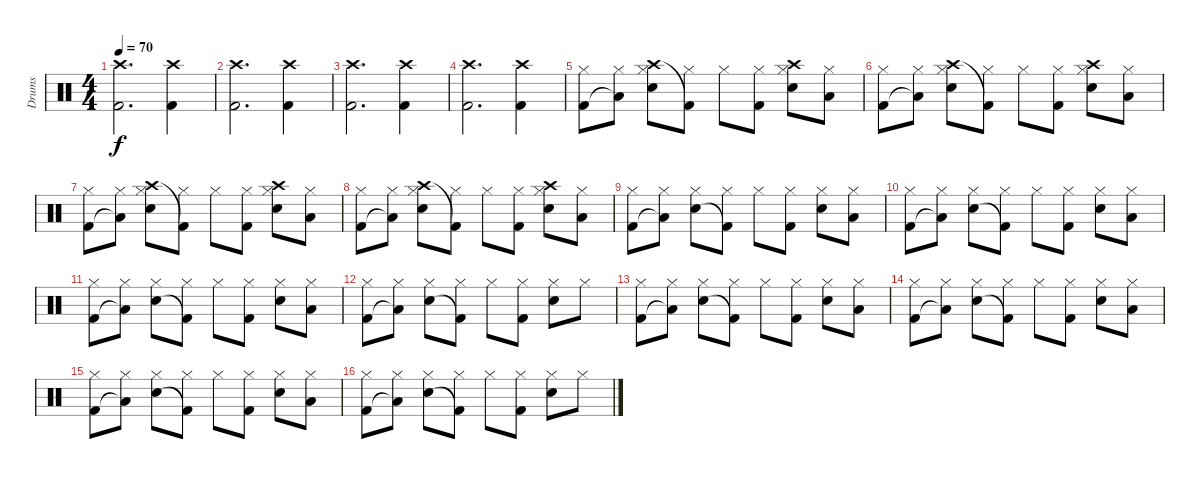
\track ("Drums" "Drums") {instrument percussion}
\staff {score}
\articulation defaults
\ts (4 4)
\tempo 70
\clef neutral
\ks c
("Crash high (hit)" "Kick (hit) 2").2{d dy f} ("Crash high (hit)" "Kick (hit) 2").4 |
("Crash high (hit)" "Kick (hit) 2").2{d} ("Crash high (hit)" "Kick (hit) 2").4 |
("Crash high (hit)" "Kick (hit) 2").2{d} ("Crash high (hit)" "Kick (hit) 2").4 |
("Crash high (hit)" "Kick (hit) 2").2{d} ("Crash high (hit)" "Kick (hit) 2").4 |
("Kick (hit) 2" "Hi-Hat (closed)").8 ("Low Floor Tom (hit)"{t} "Hi-Hat (closed)").8 ("Crash high (hit)" "Electric Snare (hit)" "Hi-Hat (closed)").8 ("Kick (hit) 2"{t} "Hi-Hat (closed)").8 "Hi-Hat (closed)".8 ("Kick (hit) 2" "Hi-Hat (closed)").8 ("Crash high (hit)" "Electric Snare (hit)" "Hi-Hat (closed)").8 ("Low Floor Tom (hit)" "Hi-Hat (closed)").8 |
("Kick (hit) 2" "Hi-Hat (closed)").8 ("Low Floor Tom (hit)"{t} "Hi-Hat (closed)").8 ("Crash high (hit)" "Electric Snare (hit)" "Hi-Hat (closed)").8 ("Kick (hit) 2"{t} "Hi-Hat (closed)").8 "Hi-Hat (closed)".8 ("Kick (hit) 2" "Hi-Hat (closed)").8 ("Crash high (hit)" "Electric Snare (hit)" "Hi-Hat (closed)").8 ("Low Floor Tom (hit)" "Hi-Hat (closed)").8 |
("Kick (hit) 2" "Hi-Hat (closed)").8 ("Low Floor Tom (hit)"{t} "Hi-Hat (closed)").8 ("Crash high (hit)" "Electric Snare (hit)" "Hi-Hat (closed)").8 ("Kick (hit) 2"{t} "Hi-Hat (closed)").8 "Hi-Hat (closed)".8 ("Kick (hit) 2" "Hi-Hat (closed)").8 ("Crash high (hit)" "Electric Snare (hit)" "Hi-Hat (closed)").8 ("Low Floor Tom (hit)" "Hi-Hat (closed)").8 |
("Kick (hit) 2" "Hi-Hat (closed)").8 ("Low Floor Tom (hit)"{t} "Hi-Hat (closed)").8 ("Crash high (hit)" "Electric Snare (hit)" "Hi-Hat (closed)").8 ("Kick (hit) 2"{t} "Hi-Hat (closed)").8 "Hi-Hat (closed)".8 ("Kick (hit) 2" "Hi-Hat (closed)").8 ("Crash high (hit)" "Electric Snare (hit)" "Hi-Hat (closed)").8 ("Low Floor Tom (hit)" "Hi-Hat (closed)").8 |
("Kick (hit) 2" "Hi-Hat (closed)").8 ("Low Floor Tom (hit)"{t} "Hi-Hat (closed)").8 ("Electric Snare (hit)" "Hi-Hat (closed)").8 ("Kick (hit) 2"{t} "Hi-Hat (closed)").8 "Hi-Hat (closed)".8 ("Kick (hit) 2" "Hi-Hat (closed)").8 ("Electric Snare (hit)" "Hi-Hat (closed)").8 ("Low Floor Tom (hit)" "Hi-Hat (closed)").8 |
("Kick (hit) 2" "Hi-Hat (closed)").8 ("Low Floor Tom (hit)"{t} "Hi-Hat (closed)").8 ("Electric Snare (hit)" "Hi-Hat (closed)").8 ("Kick (hit) 2"{t} "Hi-Hat (closed)").8 "Hi-Hat (closed)".8 ("Kick (hit) 2" "Hi-Hat (closed)").8 ("Electric Snare (hit)" "Hi-Hat (closed)").8 ("Low Floor Tom (hit)" "Hi-Hat (closed)").8 |
("Kick (hit) 2" "Hi-Hat (closed)").8 ("Low Floor Tom (hit)"{t} "Hi-Hat (closed)").8 ("Electric Snare (hit)" "Hi-Hat (closed)").8 ("Kick (hit) 2"{t} "Hi-Hat (closed)").8 "Hi-Hat (closed)".8 ("Kick (hit) 2" "Hi-Hat (closed)").8 ("Electric Snare (hit)" "Hi-Hat (closed)").8 ("Low Floor Tom (hit)" "Hi-Hat (closed)").8 |
("Kick (hit) 2" "Hi-Hat (closed)").8 ("Low Floor Tom (hit)"{t} "Hi-Hat (closed)").8 ("Electric Snare (hit)" "Hi-Hat (closed)").8 ("Kick (hit) 2"{t} "Hi-Hat (closed)").8 "Hi-Hat (closed)".8 ("Kick (hit) 2" "Hi-Hat (closed)").8 ("Electric Snare (hit)" "Hi-Hat (closed)").8 "Hi-Hat (closed)".8 |
("Kick (hit) 2" "Hi-Hat (closed)").8 ("Low Floor Tom (hit)"{t} "Hi-Hat (closed)").8 ("Electric Snare (hit)" "Hi-Hat (closed)").8 ("Kick (hit) 2"{t} "Hi-Hat (closed)").8 "Hi-Hat (closed)".8 ("Kick (hit) 2" "Hi-Hat (closed)").8 ("Electric Snare (hit)" "Hi-Hat (closed)").8 ("Low Floor Tom (hit)" "Hi-Hat (closed)").8 |
("Kick (hit) 2" "Hi-Hat (closed)").8 ("Low Floor Tom (hit)"{t} "Hi-Hat (closed)").8 ("Electric Snare (hit)" "Hi-Hat (closed)").8 ("Kick (hit) 2"{t} "Hi-Hat (closed)").8 "Hi-Hat (closed)".8 ("Kick (hit) 2" "Hi-Hat (closed)").8 ("Electric Snare (hit)" "Hi-Hat (closed)").8 ("Low Floor Tom (hit)" "Hi-Hat (closed)").8 |
("Kick (hit) 2" "Hi-Hat (closed)").8 ("Low Floor Tom (hit)"{t} "Hi-Hat (closed)").8 ("Electric Snare (hit)" "Hi-Hat (closed)").8 ("Kick (hit) 2"{t} "Hi-Hat (closed)").8 "Hi-Hat (closed)".8 ("Kick (hit) 2" "Hi-Hat (closed)").8 ("Electric Snare (hit)" "Hi-Hat (closed)").8 ("Low Floor Tom (hit)" "Hi-Hat (closed)").8 |
("Kick (hit) 2" "Hi-Hat (closed)").8 ("Low Floor Tom (hit)"{t} "Hi-Hat (closed)").8 ("Electric Snare (hit)" "Hi-Hat (closed)").8 ("Kick (hit) 2"{t} "Hi-Hat (closed)").8 "Hi-Hat (closed)".8 ("Kick (hit) 2" "Hi-Hat (closed)").8 ("Electric Snare (hit)" "Hi-Hat (closed)").8 "Hi-Hat (closed)".8
